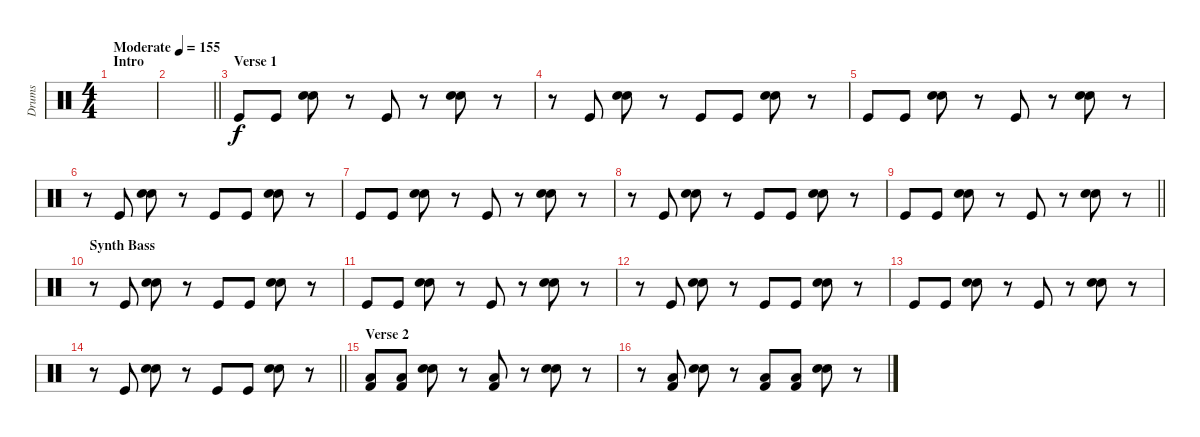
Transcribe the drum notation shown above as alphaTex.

\track ("Drums" "Drums") {instrument percussion}
\staff {score}
\articulation defaults
\ts (4 4)
\section ("" "Intro")
\tempo (155 "Moderate")
\clef neutral
\ks c
|
\barLineRight lightlight
|
\section ("" "Verse 1")
"Kick (hit)".8 "Kick (hit)".8 ("Electric Snare (hit)" "Hand Clap (hit)").8 r.8 "Kick (hit)".8 r.8 ("Electric Snare (hit)" "Hand Clap (hit)").8 r.8 |
r.8 "Kick (hit)".8 ("Electric Snare (hit)" "Hand Clap (hit)").8 r.8 "Kick (hit)".8 "Kick (hit)".8 ("Electric Snare (hit)" "Hand Clap (hit)").8 r.8 |
"Kick (hit)".8 "Kick (hit)".8 ("Electric Snare (hit)" "Hand Clap (hit)").8 r.8 "Kick (hit)".8 r.8 ("Electric Snare (hit)" "Hand Clap (hit)").8 r.8 |
r.8 "Kick (hit)".8 ("Electric Snare (hit)" "Hand Clap (hit)").8 r.8 "Kick (hit)".8 "Kick (hit)".8 ("Electric Snare (hit)" "Hand Clap (hit)").8 r.8 |
"Kick (hit)".8 "Kick (hit)".8 ("Electric Snare (hit)" "Hand Clap (hit)").8 r.8 "Kick (hit)".8 r.8 ("Electric Snare (hit)" "Hand Clap (hit)").8 r.8 |
r.8 "Kick (hit)".8 ("Electric Snare (hit)" "Hand Clap (hit)").8 r.8 "Kick (hit)".8 "Kick (hit)".8 ("Electric Snare (hit)" "Hand Clap (hit)").8 r.8 |
\barLineRight lightlight "Kick (hit)".8 "Kick (hit)".8
("Electric Snare (hit)" "Hand Clap (hit)").8 r.8 "Kick (hit)".8 r.8 ("Electric Snare (hit)" "Hand Clap (hit)").8 r.8 |
\section ("" "Synth Bass")
r.8 "Kick (hit)".8 ("Electric Snare (hit)" "Hand Clap (hit)").8 r.8 "Kick (hit)".8 "Kick (hit)".8 ("Electric Snare (hit)" "Hand Clap (hit)").8 r.8 |
"Kick (hit)".8 "Kick (hit)".8 ("Electric Snare (hit)" "Hand Clap (hit)").8 r.8 "Kick (hit)".8 r.8 ("Electric Snare (hit)" "Hand Clap (hit)").8 r.8 |
r.8 "Kick (hit)".8 ("Electric Snare (hit)" "Hand Clap (hit)").8 r.8 "Kick (hit)".8 "Kick (hit)".8 ("Electric Snare (hit)" "Hand Clap (hit)").8 r.8 |
"Kick (hit)".8 "Kick (hit)".8 ("Electric Snare (hit)" "Hand Clap (hit)").8 r.8 "Kick (hit)".8 r.8 ("Electric Snare (hit)" "Hand Clap (hit)").8 r.8 |
\barLineRight lightlight
r.8 "Kick (hit)".8 ("Electric Snare (hit)" "Hand Clap (hit)").8 r.8 "Kick (hit)".8 "Kick (hit)".8 ("Electric Snare (hit)" "Hand Clap (hit)").8 r.8 |
\section ("" "Verse 2")
("Low Tom (hit)" "Kick (hit) 2").8 ("Low Tom (hit)" "Kick (hit) 2").8 ("Electric Snare (hit)" "Snare (hit) 2").8 r.8 ("Low Tom (hit)" "Kick (hit) 2").8 r.8 ("Electric Snare (hit)" "Snare (hit) 2").8 r.8 |
r.8 ("Low Tom (hit)" "Kick (hit) 2").8 ("Electric Snare (hit)" "Snare (hit) 2").8 r.8 ("Low Tom (hit)" "Kick (hit) 2").8 ("Low Tom (hit)" "Kick (hit) 2").8 ("Electric Snare (hit)" "Snare (hit) 2").8 r.8
